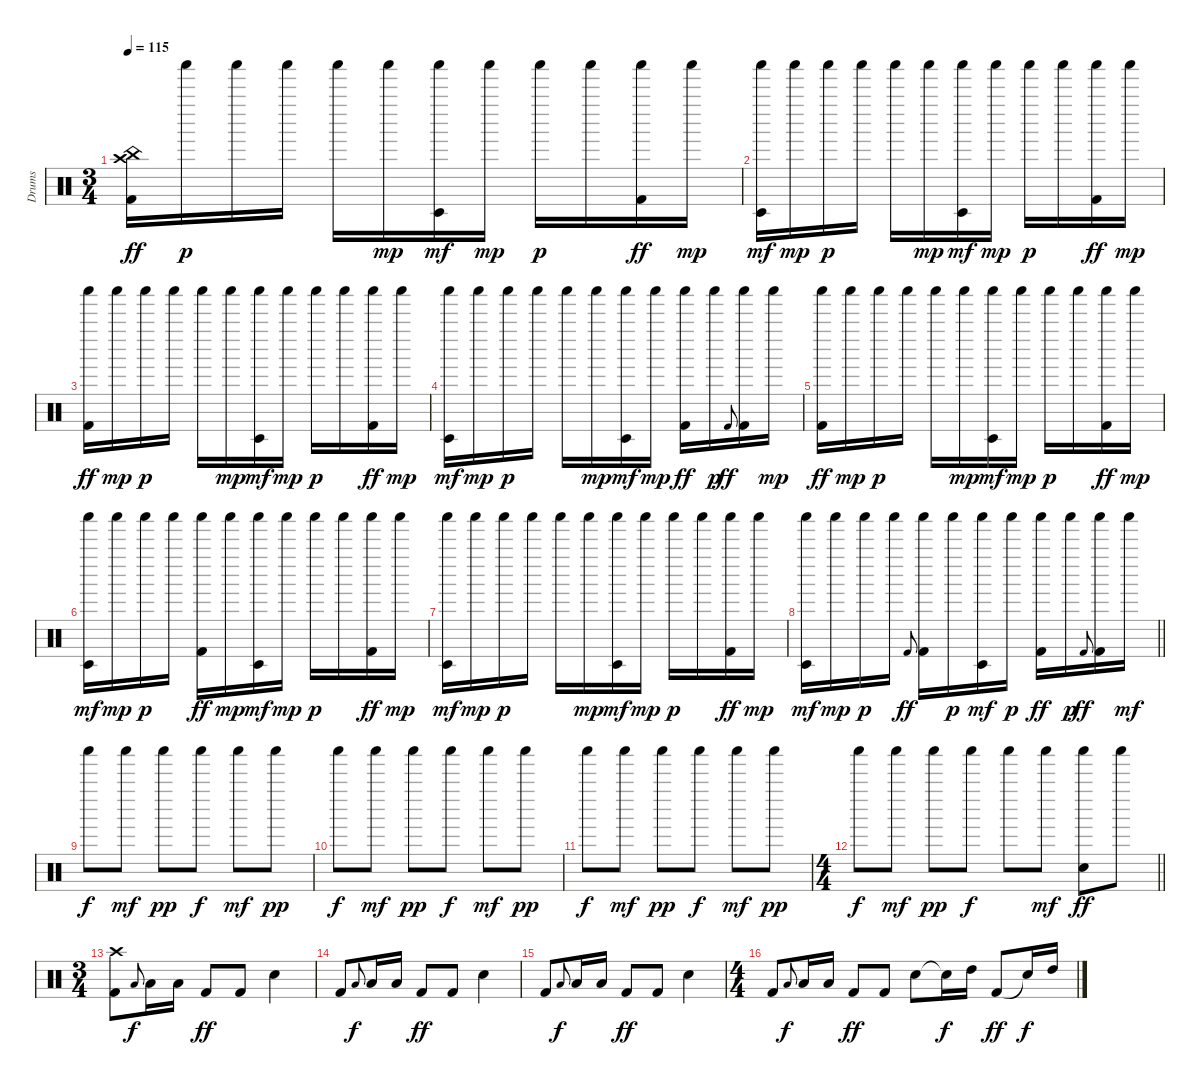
\track ("Drums" "Drums") {instrument percussion}
\staff {score}
\articulation defaults
\ts (3 4)
\section ("" "")
\tempo 115
\clef neutral
\ks c
("China (hit)" "Crash high (hit)" "Kick (hit) 2").16{dy ff} "Shaker (hit)".16{dy p} "Shaker (hit)".16 "Shaker (hit)".16 "Shaker (hit)".16 "Shaker (hit)".16{dy mp} ("Shaker (hit)" "Timbale low (hit)").16{dy mf} "Shaker (hit)".16{dy mp} "Shaker (hit)".16{dy p} "Shaker (hit)".16 ("Shaker (hit)" "Kick (hit) 2").16{dy ff} "Shaker (hit)".16{dy mp} |
("Shaker (hit)" "Timbale low (hit)").16{dy mf} "Shaker (hit)".16{dy mp} "Shaker (hit)".16{dy p} "Shaker (hit)".16 "Shaker (hit)".16 "Shaker (hit)".16{dy mp} ("Shaker (hit)" "Timbale low (hit)").16{dy mf} "Shaker (hit)".16{dy mp} "Shaker (hit)".16{dy p} "Shaker (hit)".16 ("Shaker (hit)" "Kick (hit) 2").16{dy ff} "Shaker (hit)".16{dy mp} |
("Shaker (hit)" "Kick (hit) 2").16{dy ff} "Shaker (hit)".16{dy mp} "Shaker (hit)".16{dy p} "Shaker (hit)".16 "Shaker (hit)".16 "Shaker (hit)".16{dy mp} ("Shaker (hit)" "Timbale low (hit)").16{dy mf} "Shaker (hit)".16{dy mp} "Shaker (hit)".16{dy p} "Shaker (hit)".16 ("Shaker (hit)" "Kick (hit) 2").16{dy ff} "Shaker (hit)".16{dy mp} |
("Shaker (hit)" "Timbale low (hit)").16{dy mf} "Shaker (hit)".16{dy mp} "Shaker (hit)".16{dy p} "Shaker (hit)".16 "Shaker (hit)".16 "Shaker (hit)".16{dy mp} ("Shaker (hit)" "Timbale low (hit)").16{dy mf} "Shaker (hit)".16{dy mp} ("Shaker (hit)" "Kick (hit) 2").16{dy ff} "Shaker (hit)".16{dy p} "Kick (hit) 2".8{gr onbeat dy ff} ("Shaker (hit)" "Kick (hit) 2").16 "Shaker (hit)".16{dy mp} |
("Shaker (hit)" "Kick (hit) 2").16{dy ff} "Shaker (hit)".16{dy mp} "Shaker (hit)".16{dy p} "Shaker (hit)".16 "Shaker (hit)".16 "Shaker (hit)".16{dy mp} ("Shaker (hit)" "Timbale low (hit)").16{dy mf} "Shaker (hit)".16{dy mp} "Shaker (hit)".16{dy p} "Shaker (hit)".16 ("Shaker (hit)" "Kick (hit) 2").16{dy ff} "Shaker (hit)".16{dy mp} |
("Shaker (hit)" "Timbale low (hit)").16{dy mf} "Shaker (hit)".16{dy mp} "Shaker (hit)".16{dy p} "Shaker (hit)".16 ("Shaker (hit)" "Kick (hit) 2").16{dy ff} "Shaker (hit)".16{dy mp} ("Shaker (hit)" "Timbale low (hit)").16{dy mf} "Shaker (hit)".16{dy mp} "Shaker (hit)".16{dy p} "Shaker (hit)".16 ("Shaker (hit)" "Kick (hit) 2").16{dy ff} "Shaker (hit)".16{dy mp} |
("Shaker (hit)" "Timbale low (hit)").16{dy mf} "Shaker (hit)".16{dy mp} "Shaker (hit)".16{dy p} "Shaker (hit)".16 "Shaker (hit)".16 "Shaker (hit)".16{dy mp} ("Shaker (hit)" "Timbale low (hit)").16{dy mf} "Shaker (hit)".16{dy mp} "Shaker (hit)".16{dy p} "Shaker (hit)".16 ("Shaker (hit)" "Kick (hit) 2").16{dy ff} "Shaker (hit)".16{dy mp} |
\barLineRight lightlight
("Shaker (hit)" "Timbale low (hit)").16{dy mf} "Shaker (hit)".16{dy mp} "Shaker (hit)".16{dy p} "Shaker (hit)".16 "Kick (hit) 2".8{gr onbeat dy ff} ("Shaker (hit)" "Kick (hit) 2").16 "Shaker (hit)".16{dy p} ("Shaker (hit)" "Timbale low (hit)").16{dy mf} "Shaker (hit)".16{dy p} ("Shaker (hit)" "Kick (hit) 2").16{dy ff} "Shaker (hit)".16{dy p} "Kick (hit) 2".8{gr onbeat dy ff} ("Shaker (hit)" "Kick (hit) 2").16 "Shaker (hit)".16{dy mf} |
\section ("" "")
"Shaker (hit)".8{dy f} "Shaker (hit)".8{dy mf} "Shaker (hit)".8{dy pp} "Shaker (hit)".8{dy f} "Shaker (hit)".8{dy mf} "Shaker (hit)".8{dy pp} |
"Shaker (hit)".8{dy f} "Shaker (hit)".8{dy mf} "Shaker (hit)".8{dy pp} "Shaker (hit)".8{dy f} "Shaker (hit)".8{dy mf} "Shaker (hit)".8{dy pp} |
"Shaker (hit)".8{dy f} "Shaker (hit)".8{dy mf} "Shaker (hit)".8{dy pp} "Shaker (hit)".8{dy f} "Shaker (hit)".8{dy mf} "Shaker (hit)".8{dy pp} |
\ts (4 4)
\barLineRight lightlight "Shaker (hit)".8{dy f} "Shaker (hit)".8{dy mf} "Shaker (hit)".8{dy pp} "Shaker (hit)".8{dy f} "Shaker (hit)".8 "Shaker (hit)".8{dy mf}
("Shaker (hit)" "Snare (hit) 2").8{dy ff} "Shaker (hit)".8 |
\ts (3 4)
\section ("" "")
("Crash high (hit)" "Kick (hit) 2").8 "Low Tom (hit)".8{gr onbeat dy f} "Low Tom (hit)".16 "Low Tom (hit)".16 "Kick (hit) 2".8{dy ff} "Kick (hit) 2".8 "Snare (hit) 2".4 |
"Kick (hit) 2".8 "Low Tom (hit)".8{gr onbeat dy f} "Low Tom (hit)".16 "Low Tom (hit)".16 "Kick (hit) 2".8{dy ff} "Kick (hit) 2".8 "Snare (hit) 2".4 |
"Kick (hit) 2".8 "Low Tom (hit)".8{gr onbeat dy f} "Low Tom (hit)".16 "Low Tom (hit)".16 "Kick (hit) 2".8{dy ff} "Kick (hit) 2".8 "Snare (hit) 2".4 |
\ts (4 4)
"Kick (hit) 2".8 "Low Tom (hit)".8{gr onbeat dy f} "Low Tom (hit)".16 "Low Tom (hit)".16 "Kick (hit) 2".8{dy ff} "Kick (hit) 2".8 "Snare (hit) 2".8 "Snare (hit)"{t}.16{dy f} "High Tom (hit)".16 "Kick (hit) 2".8{dy ff} "Snare (hit)"{t}.16{dy f} "High Tom (hit)".16
